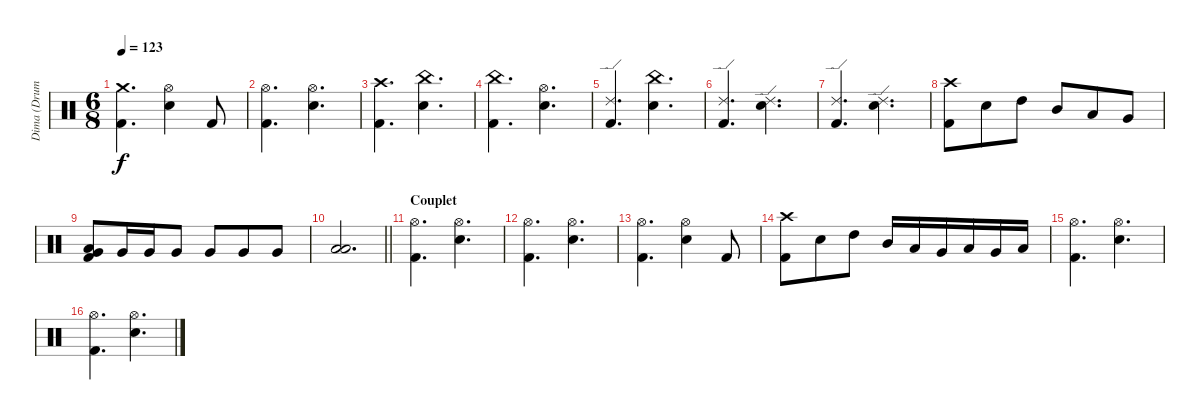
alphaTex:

\track ("Dima (Drums)" "Dima (Drum") {instrument percussion}
\staff {score}
\articulation defaults
\ts (6 8)
\tempo 123
\clef neutral
\ks c
("Crash medium (hit)" "Kick (hit) 2").4{d dy f} ("Hi-Hat (open)" "Snare (hit) 2").4 "Kick (hit) 2".8 |
("Hi-Hat (open)" "Kick (hit) 2").4{d} ("Hi-Hat (open)" "Snare (hit) 2").4{d} |
("Crash high (hit)" "Kick (hit) 2").4{d} ("China (hit)" "Snare (hit) 2").4{d} |
("China (hit)" "Kick (hit) 2").4{d} ("Hi-Hat (open)" "Snare (hit) 2").4{d} |
("Ride (edge) 2" "Kick (hit) 2").4{d} ("China (hit)" "Snare (hit) 2").4{d} |
("Ride (edge) 2" "Kick (hit) 2").4{d} ("Ride (edge) 2" "Snare (hit) 2").4{d} |
("Ride (edge) 2" "Kick (hit) 2").4{d} ("Ride (edge) 2" "Snare (hit) 2").4{d} |
("Crash high (hit)" "Kick (hit) 2").8 "Snare (hit) 2".8 "High Tom (hit)".8 "Mid Tom (hit)".8 "Low Tom (hit)".8 "Very Low Tom (hit)".8 |
("Low Floor Tom (hit)" "Kick (hit) 2" "Very Low Tom (hit)").8 "Very Low Tom (hit)".16 "Very Low Tom (hit)".16 "Very Low Tom (hit)".8 "Very Low Tom (hit)".8 "Very Low Tom (hit)".8 "Very Low Tom (hit)".8 |
\barLineRight lightlight
("Low Tom (hit)" "Low Floor Tom (hit)").2{d} |
\section ("" "Couplet")
("Hi-Hat (open)" "Kick (hit) 2").4{d} ("Hi-Hat (open)" "Snare (hit) 2").4{d} |
("Hi-Hat (open)" "Kick (hit) 2").4{d} ("Hi-Hat (open)" "Snare (hit) 2").4{d} |
("Hi-Hat (open)" "Kick (hit) 2").4{d} ("Hi-Hat (open)" "Snare (hit) 2").4 "Kick (hit) 2".8 |
("Crash high (hit)" "Kick (hit) 2").8 "Snare (hit) 2".8 "High Tom (hit)".8 "Mid Tom (hit)".16 "Low Tom (hit)".16 "Very Low Tom (hit)".16 "Low Tom (hit)".16 "Very Low Tom (hit)".16 "Low Floor Tom (hit)".16 |
("Hi-Hat (open)" "Kick (hit) 2").4{d} ("Hi-Hat (open)" "Snare (hit) 2").4{d} |
("Hi-Hat (open)" "Kick (hit) 2").4{d} ("Hi-Hat (open)" "Snare (hit) 2").4{d}
